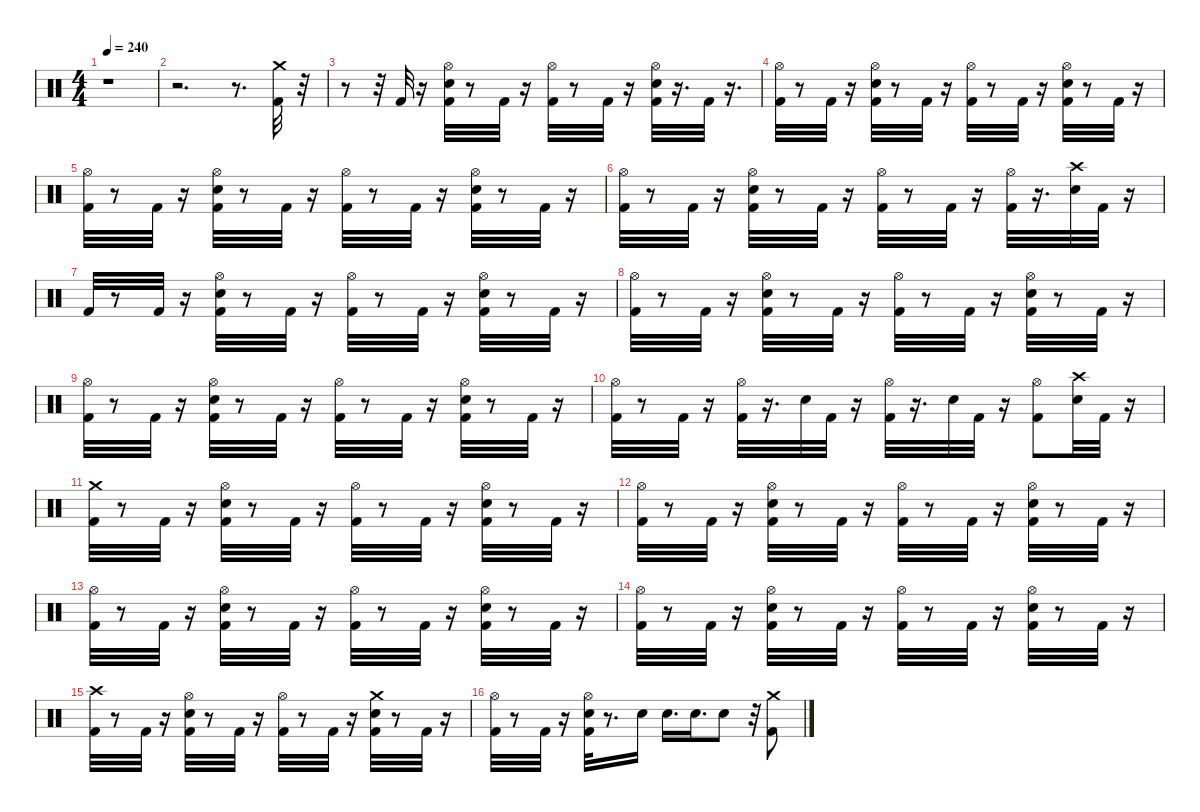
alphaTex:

\defaultSystemsLayout 4
\hideDynamics
\bracketExtendMode nobrackets
\singleTrackTrackNamePolicy hidden
\multiTrackTrackNamePolicy hidden
\otherSystemsTrackNameOrientation horizontal
\track ("Drums" "drm.") {instrument percussion}
\staff {score}
\articulation defaults
\ts (4 4)
\tempo 240
\clef neutral
\ks c
r.1{dy f} |
r.2{d} r.8{d} ("Crash medium (hit)" "Kick (hit) 2").32 r.32 |
r.8 r.32 "Kick (hit) 2".32 r.16 ("Snare (hit) 2" "Kick (hit) 2" "Hi-Hat (open)").32 r.8 "Kick (hit) 2".32 r.16 ("Kick (hit) 2" "Hi-Hat (open)").32 r.8 "Kick (hit) 2".32 r.16 ("Snare (hit) 2" "Kick (hit) 2" "Hi-Hat (open)").32 r.16{d} "Kick (hit) 2".32 r.16{d} |
("Kick (hit) 2" "Hi-Hat (open)").32 r.8 "Kick (hit) 2".32 r.16 ("Snare (hit) 2" "Hi-Hat (open)" "Kick (hit) 2").32 r.8 "Kick (hit) 2".32 r.16 ("Hi-Hat (open)" "Kick (hit) 2").32 r.8 "Kick (hit) 2".32 r.16 ("Hi-Hat (open)" "Kick (hit) 2" "Snare (hit) 2").32 r.8 "Kick (hit) 2".32 r.16 |
("Hi-Hat (open)" "Kick (hit) 2").32 r.8 "Kick (hit) 2".32 r.16 ("Hi-Hat (open)" "Snare (hit) 2" "Kick (hit) 2").32 r.8 "Kick (hit) 2".32 r.16 ("Hi-Hat (open)" "Kick (hit) 2").32 r.8 "Kick (hit) 2".32 r.16 ("Hi-Hat (open)" "Kick (hit) 2" "Snare (hit) 2").32 r.8 "Kick (hit) 2".32 r.16 |
("Hi-Hat (open)" "Kick (hit) 2").32 r.8 "Kick (hit) 2".32 r.16 ("Kick (hit) 2" "Hi-Hat (open)" "Snare (hit) 2").32 r.8 "Kick (hit) 2".32 r.16 ("Kick (hit) 2" "Hi-Hat (open)").32 r.8 "Kick (hit) 2".32 r.16 ("Kick (hit) 2" "Hi-Hat (open)").32 r.16{d} ("Snare (hit) 2" "Crash high (hit)").32 "Kick (hit) 2".32 r.16 |
"Kick (hit) 2".32 r.8 "Kick (hit) 2".32 r.16 ("Hi-Hat (open)" "Kick (hit) 2" "Snare (hit) 2").32 r.8 "Kick (hit) 2".32 r.16 ("Kick (hit) 2" "Hi-Hat (open)").32 r.8 "Kick (hit) 2".32 r.16 ("Hi-Hat (open)" "Kick (hit) 2" "Snare (hit) 2").32 r.8 "Kick (hit) 2".32 r.16 |
("Hi-Hat (open)" "Kick (hit) 2").32 r.8 "Kick (hit) 2".32 r.16 ("Kick (hit) 2" "Hi-Hat (open)" "Snare (hit) 2").32 r.8 "Kick (hit) 2".32 r.16 ("Hi-Hat (open)" "Kick (hit) 2").32 r.8 "Kick (hit) 2".32 r.16 ("Hi-Hat (open)" "Kick (hit) 2" "Snare (hit) 2").32 r.8 "Kick (hit) 2".32 r.16 |
("Hi-Hat (open)" "Kick (hit) 2").32 r.8 "Kick (hit) 2".32 r.16 ("Hi-Hat (open)" "Kick (hit) 2" "Snare (hit) 2").32 r.8 "Kick (hit) 2".32 r.16 ("Hi-Hat (open)" "Kick (hit) 2").32 r.8 "Kick (hit) 2".32 r.16 ("Kick (hit) 2" "Hi-Hat (open)" "Snare (hit) 2").32 r.8 "Kick (hit) 2".32 r.16 |
("Kick (hit) 2" "Hi-Hat (open)").32 r.8 "Kick (hit) 2".32 r.16 ("Hi-Hat (open)" "Kick (hit) 2").32 r.16{d} "Snare (hit) 2".32 "Kick (hit) 2".32 r.16 ("Hi-Hat (open)" "Kick (hit) 2").32 r.16{d} "Snare (hit) 2".32{dy fff} "Kick (hit) 2".32{dy f} r.16 ("Kick (hit) 2" "Hi-Hat (open)").8 ("Crash high (hit)" "Snare (hit) 2").32 "Kick (hit) 2".32 r.16 |
("Crash medium (hit)" "Kick (hit) 2").32 r.8 "Kick (hit) 2".32 r.16 ("Snare (hit) 2" "Kick (hit) 2" "Hi-Hat (open)").32 r.8 "Kick (hit) 2".32 r.16 ("Kick (hit) 2" "Hi-Hat (open)").32 r.8 "Kick (hit) 2".32 r.16 ("Snare (hit) 2" "Kick (hit) 2" "Hi-Hat (open)").32 r.8 "Kick (hit) 2".32 r.16 |
("Hi-Hat (open)" "Kick (hit) 2").32 r.8 "Kick (hit) 2".32 r.16 ("Hi-Hat (open)" "Kick (hit) 2" "Snare (hit) 2").32 r.8 "Kick (hit) 2".32 r.16 ("Hi-Hat (open)" "Kick (hit) 2").32 r.8 "Kick (hit) 2".32 r.16 ("Snare (hit) 2" "Hi-Hat (open)" "Kick (hit) 2").32 r.8 "Kick (hit) 2".32 r.16 |
("Hi-Hat (open)" "Kick (hit) 2").32 r.8 "Kick (hit) 2".32 r.16 ("Hi-Hat (open)" "Kick (hit) 2" "Snare (hit) 2").32 r.8 "Kick (hit) 2".32 r.16 ("Kick (hit) 2" "Hi-Hat (open)").32 r.8 "Kick (hit) 2".32 r.16 ("Kick (hit) 2" "Hi-Hat (open)" "Snare (hit) 2").32 r.8 "Kick (hit) 2".32 r.16 |
("Hi-Hat (open)" "Kick (hit) 2").32 r.8 "Kick (hit) 2".32 r.16 ("Kick (hit) 2" "Hi-Hat (open)" "Snare (hit) 2").32 r.8 "Kick (hit) 2".32 r.16 ("Hi-Hat (open)" "Kick (hit) 2").32 r.8 "Kick (hit) 2".32 r.16 ("Snare (hit) 2" "Hi-Hat (open)" "Kick (hit) 2").32 r.8 "Kick (hit) 2".32 r.16 |
("Kick (hit) 2" "Crash high (hit)").32 r.8 "Kick (hit) 2".32 r.16 ("Kick (hit) 2" "Snare (hit) 2" "Hi-Hat (open)").32 r.8 "Kick (hit) 2".32 r.16 ("Hi-Hat (open)" "Kick (hit) 2").32 r.8 "Kick (hit) 2".32 r.16 ("Snare (hit) 2" "Kick (hit) 2" "Crash medium (hit)").32 r.8 "Kick (hit) 2".32 r.16 |
("Hi-Hat (open)" "Kick (hit) 2").32 r.8 "Kick (hit) 2".32 r.16 ("Hi-Hat (open)" "Kick (hit) 2" "Snare (hit) 2").32 r.8{d} "Snare (hit) 2".16{dy fff} "Snare (hit) 2".16{d} "Snare (hit) 2".16{d dy f} "Snare (hit) 2".8 r.32 ("Kick (hit) 2" "Crash medium (hit)").8{dy fff}
